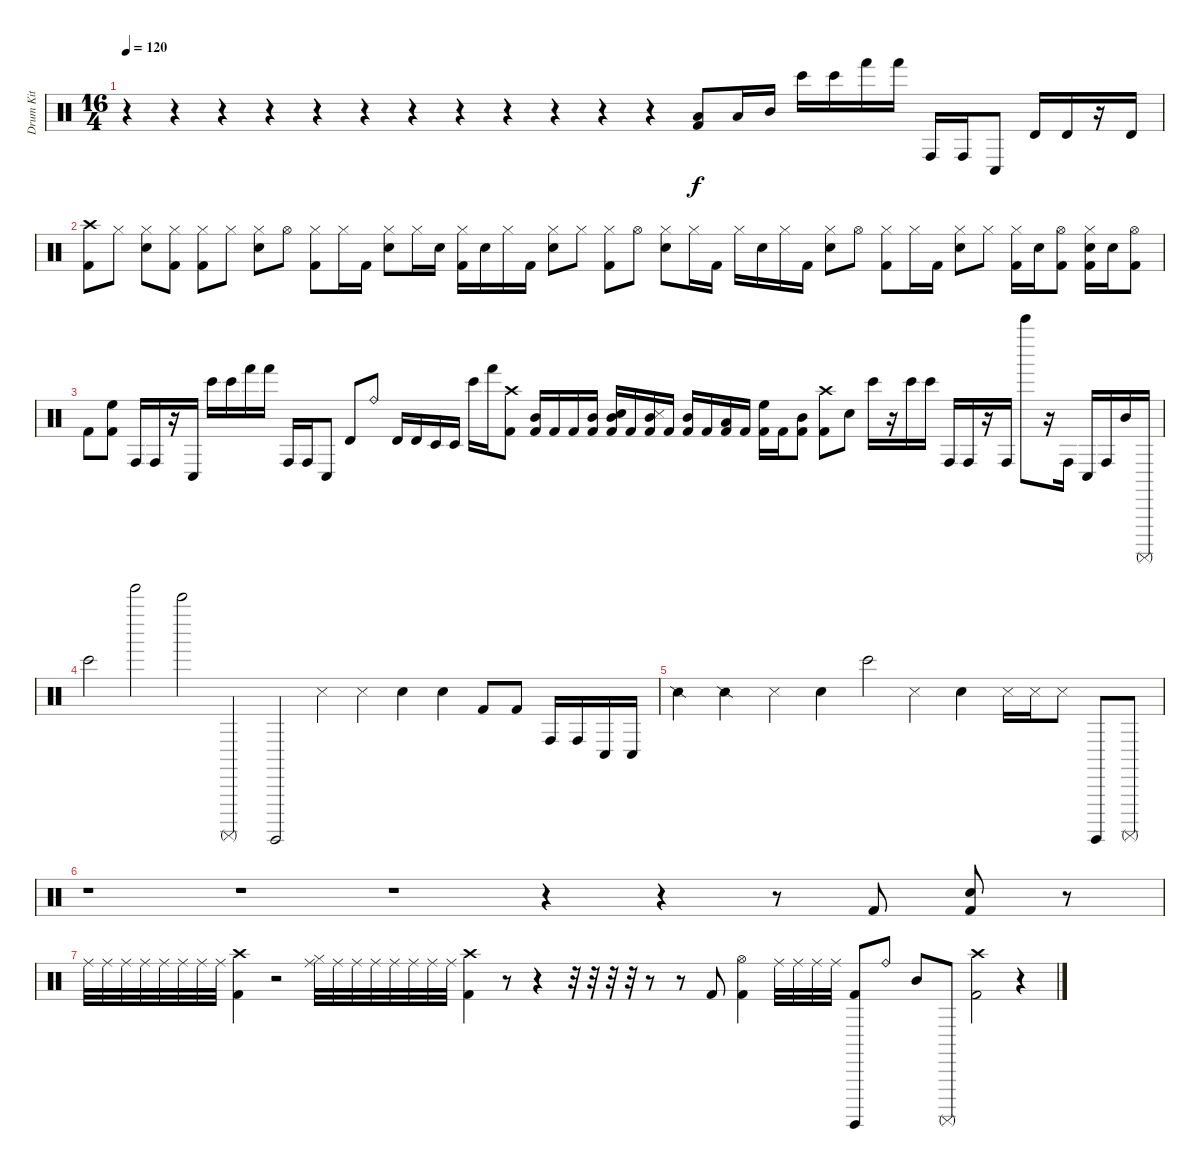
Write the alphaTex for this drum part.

\track ("Drum Kit" "Drum Kit") {instrument percussion}
\staff {score}
\articulation defaults
\ts (16 4)
\tempo 120
\clef neutral
\ks c
r.4{dy f} r.4 r.4 r.4 r.4 r.4 r.4 r.4 r.4 r.4 r.4 r.4 ("Low Tom (hit)" "Kick (hit) 2").8 "Low Tom (hit)".16 "Mid Tom (hit)".16 "Bongo High (hit)".16 "Bongo High (hit)".16 "Hand (hit)".16 "Hand (hit)".16 "Conga high (hit)".16 "Conga high (hit)".16 "Conga low (hit)".8 "Timbale high (hit)".16 "Timbale high (hit)".16 r.16 "Timbale high (hit)".16 |
("Crash high (hit)" "Kick (hit) 2").8 "Hi-Hat (closed)".8 ("Hi-Hat (closed)" "Snare (hit) 2").8 ("Hi-Hat (closed)" "Kick (hit) 2").8 ("Hi-Hat (closed)" "Kick (hit) 2").8 "Hi-Hat (closed)".8 ("Hi-Hat (closed)" "Snare (hit) 2").8 "Hi-Hat (open)".8 ("Hi-Hat (closed)" "Kick (hit) 2").8 "Hi-Hat (closed)".16 "Kick (hit) 2".16 ("Hi-Hat (closed)" "Snare (hit) 2").8 "Hi-Hat (closed)".16 "Snare (hit) 2".16 ("Hi-Hat (closed)" "Kick (hit) 2").16 "Snare (hit) 2".16 "Hi-Hat (closed)".16 "Kick (hit) 2".16 ("Hi-Hat (closed)" "Snare (hit) 2").8 "Hi-Hat (closed)".8 ("Hi-Hat (closed)" "Kick (hit) 2").8 "Hi-Hat (open)".8 ("Hi-Hat (closed)" "Snare (hit) 2").8 "Hi-Hat (closed)".16 "Kick (hit) 2".16 "Hi-Hat (closed)".16 "Snare (hit) 2".16 "Hi-Hat (closed)".16 "Kick (hit) 2".16 ("Hi-Hat (closed)" "Snare (hit) 2").8 "Hi-Hat (open)".8 ("Hi-Hat (closed)" "Kick (hit) 2").8 "Hi-Hat (closed)".16 "Kick (hit) 2".16 ("Hi-Hat (closed)" "Snare (hit) 2").8 "Hi-Hat (closed)".8 ("Hi-Hat (closed)" "Kick (hit) 2").16 "Snare (hit) 2".16 ("Hi-Hat (open)" "Kick (hit) 2").8 ("Hi-Hat (closed)" "Snare (hit) 2" "Kick (hit) 2").16 "Snare (hit) 2".16 ("Hi-Hat (open)" "Kick (hit) 2").8 |
"Kick (hit) 2".8 ("High Floor Tom (hit)" "Kick (hit) 2").8 "Conga high (hit)".16 "Conga high (hit)".16 r.16 "Conga low (hit)".16 "Bongo High (hit)".16 "Bongo High (hit)".16 "Hand (hit)".16 "Hand (hit)".16 "Conga high (hit)".16 "Conga high (hit)".16 "Conga low (hit)".8 "Timbale high (hit)".8 "Ride (bell)".8 "Timbale high (hit)".16 "Timbale high (hit)".16 "Timbale low (hit)".16 "Timbale low (hit)".16 "Bongo High (hit)".16 "Hand (hit)".16 ("Crash high (hit)" "Kick (hit) 2").8 ("Mid Tom (hit)" "Kick (hit) 2").16 "Kick (hit) 2".16 "Kick (hit) 2".16 ("Mid Tom (hit)" "Kick (hit) 2").16 ("Mid Tom (hit)" "Snare (hit) 2" "Kick (hit) 2").16 "Kick (hit) 2".16 ("Mid Tom (hit)" "Snare (side stick) 3" "Kick (hit) 2").16 "Kick (hit) 2".16 ("Mid Tom (hit)" "Kick (hit) 2").16 "Kick (hit) 2".16 ("Low Tom (hit)" "Kick (hit) 2").16 "Kick (hit) 2".16 ("High Floor Tom (hit)" "Kick (hit) 2").16 "Kick (hit) 2".16 ("Mid Tom (hit)" "Kick (hit) 2").8 ("Crash high (hit)" "Kick (hit) 2").8 "Snare (hit) 2".8 "Bongo High (hit)".16 r.16 "Bongo High (hit)".16 "Bongo High (hit)".16 "Conga high (hit)".16 "Conga high (hit)".16 r.16 "Conga high (hit)".16 "Bell Tree (hit)".8 r.16 "Conga high (hit)".16 "Conga low (hit)".16 "Conga high (hit)".16 "Mid Tom (hit)".16 "Surdo (mute)".16 |
"Bongo High (hit)".2 "Tinkle Bell (hit)".2 "Bell Tree (hit)".2 "Surdo (mute)".2 "Surdo (hit)".2 "Metronome (hit)".4 "Metronome (hit)".4 "Metronome (bell)".4 "Metronome (bell)".4 "Kick (hit) 2".8 "Kick (hit) 2".8 "Conga high (hit)".16 "Conga high (hit)".16 "Conga low (hit)".16 "Conga low (hit)".16 |
"Snare (side stick) 2".2 "Snare (side stick) 2".2 "Metronome (hit)".2 "Metronome (bell)".2 "Bongo High (hit)".2 "Metronome (hit)".2 "Metronome (bell)".2 "Metronome (hit)".16 "Metronome (hit)".16 "Metronome (hit)".8 "Surdo (hit)".8 "Surdo (mute)".8 |
r.1 r.1 r.1 r.4 r.4 r.8 "Kick (hit) 2".8 ("Snare (hit) 2" "Kick (hit) 2").8 r.8 |
"Ride (middle)".32 "Ride (middle)".32 "Ride (middle)".32 "Ride (middle)".32 "Ride (middle)".32 "Ride (middle)".32 "Ride (middle)".32 "Ride (middle)".32 ("Crash high (hit)" "Kick (hit) 2").4 r.2 ("Ride (middle)" "Hi-Hat (closed)").32 "Ride (middle)".32 "Ride (middle)".32 "Ride (middle)".32 "Ride (middle)".32 "Ride (middle)".32 "Ride (middle)".32 "Ride (middle)".32 ("Crash high (hit)" "Kick (hit) 2").4 r.8 r.4 r.32 r.32 r.32 r.32 r.8 r.8 "Kick (hit) 2".8 ("Hi-Hat (open)" "Kick (hit) 2").4 "Ride (middle)".32 "Ride (middle)".32 "Ride (middle)".32 "Ride (middle)".32 ("Surdo (hit)" "Kick (hit) 2").8 "Ride (bell)".8 "Mid Tom (hit)".8 "Surdo (mute)".8 ("Kick (hit) 2" "Crash high (hit)").2 r.4
